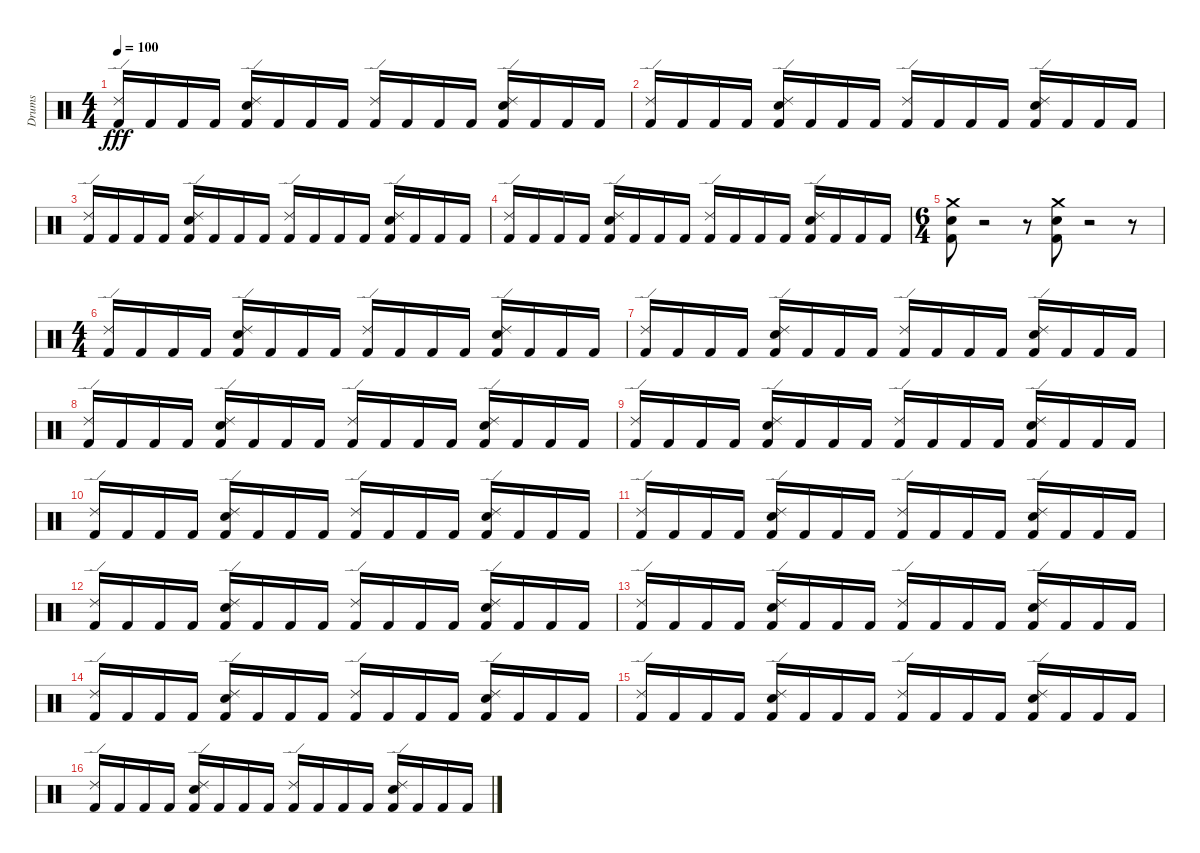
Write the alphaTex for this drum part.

\track ("Drums" "Drums") {instrument percussion}
\staff {score}
\articulation defaults
\ts (4 4)
\tempo 100
\clef neutral
\ks c
("Ride (edge) 2" "Kick (hit) 2").16{dy fff} "Kick (hit) 2".16 "Kick (hit) 2".16 "Kick (hit) 2".16 ("Electric Snare (hit)" "Ride (edge) 2" "Kick (hit) 2").16 "Kick (hit) 2".16 "Kick (hit) 2".16 "Kick (hit) 2".16 ("Ride (edge) 2" "Kick (hit) 2").16 "Kick (hit) 2".16 "Kick (hit) 2".16 "Kick (hit) 2".16 ("Ride (edge) 2" "Electric Snare (hit)" "Kick (hit) 2").16 "Kick (hit) 2".16 "Kick (hit) 2".16 "Kick (hit) 2".16 |
("Ride (edge) 2" "Kick (hit) 2").16 "Kick (hit) 2".16 "Kick (hit) 2".16 "Kick (hit) 2".16 ("Electric Snare (hit)" "Ride (edge) 2" "Kick (hit) 2").16 "Kick (hit) 2".16 "Kick (hit) 2".16 "Kick (hit) 2".16 ("Ride (edge) 2" "Kick (hit) 2").16 "Kick (hit) 2".16 "Kick (hit) 2".16 "Kick (hit) 2".16 ("Ride (edge) 2" "Electric Snare (hit)" "Kick (hit) 2").16 "Kick (hit) 2".16 "Kick (hit) 2".16 "Kick (hit) 2".16 |
("Ride (edge) 2" "Kick (hit) 2").16 "Kick (hit) 2".16 "Kick (hit) 2".16 "Kick (hit) 2".16 ("Electric Snare (hit)" "Ride (edge) 2" "Kick (hit) 2").16 "Kick (hit) 2".16 "Kick (hit) 2".16 "Kick (hit) 2".16 ("Ride (edge) 2" "Kick (hit) 2").16 "Kick (hit) 2".16 "Kick (hit) 2".16 "Kick (hit) 2".16 ("Ride (edge) 2" "Electric Snare (hit)" "Kick (hit) 2").16 "Kick (hit) 2".16 "Kick (hit) 2".16 "Kick (hit) 2".16 |
("Ride (edge) 2" "Kick (hit) 2").16 "Kick (hit) 2".16 "Kick (hit) 2".16 "Kick (hit) 2".16 ("Electric Snare (hit)" "Ride (edge) 2" "Kick (hit) 2").16 "Kick (hit) 2".16 "Kick (hit) 2".16 "Kick (hit) 2".16 ("Ride (edge) 2" "Kick (hit) 2").16 "Kick (hit) 2".16 "Kick (hit) 2".16 "Kick (hit) 2".16 ("Ride (edge) 2" "Electric Snare (hit)" "Kick (hit) 2").16 "Kick (hit) 2".16 "Kick (hit) 2".16 "Kick (hit) 2".16 |
\ts (6 4)
("Crash medium (hit)" "Electric Snare (hit)" "Kick (hit) 2").8 r.2 r.8 ("Crash medium (hit)" "Electric Snare (hit)" "Kick (hit) 2").8 r.2 r.8 |
\ts (4 4)
("Ride (edge) 2" "Kick (hit) 2").16 "Kick (hit) 2".16 "Kick (hit) 2".16 "Kick (hit) 2".16 ("Electric Snare (hit)" "Ride (edge) 2" "Kick (hit) 2").16 "Kick (hit) 2".16 "Kick (hit) 2".16 "Kick (hit) 2".16 ("Ride (edge) 2" "Kick (hit) 2").16 "Kick (hit) 2".16 "Kick (hit) 2".16 "Kick (hit) 2".16 ("Ride (edge) 2" "Electric Snare (hit)" "Kick (hit) 2").16 "Kick (hit) 2".16 "Kick (hit) 2".16 "Kick (hit) 2".16 |
("Ride (edge) 2" "Kick (hit) 2").16 "Kick (hit) 2".16 "Kick (hit) 2".16 "Kick (hit) 2".16 ("Electric Snare (hit)" "Ride (edge) 2" "Kick (hit) 2").16 "Kick (hit) 2".16 "Kick (hit) 2".16 "Kick (hit) 2".16 ("Ride (edge) 2" "Kick (hit) 2").16 "Kick (hit) 2".16 "Kick (hit) 2".16 "Kick (hit) 2".16 ("Ride (edge) 2" "Electric Snare (hit)" "Kick (hit) 2").16 "Kick (hit) 2".16 "Kick (hit) 2".16 "Kick (hit) 2".16 |
("Ride (edge) 2" "Kick (hit) 2").16 "Kick (hit) 2".16 "Kick (hit) 2".16 "Kick (hit) 2".16 ("Electric Snare (hit)" "Ride (edge) 2" "Kick (hit) 2").16 "Kick (hit) 2".16 "Kick (hit) 2".16 "Kick (hit) 2".16 ("Ride (edge) 2" "Kick (hit) 2").16 "Kick (hit) 2".16 "Kick (hit) 2".16 "Kick (hit) 2".16 ("Ride (edge) 2" "Electric Snare (hit)" "Kick (hit) 2").16 "Kick (hit) 2".16 "Kick (hit) 2".16 "Kick (hit) 2".16 |
("Ride (edge) 2" "Kick (hit) 2").16 "Kick (hit) 2".16 "Kick (hit) 2".16 "Kick (hit) 2".16 ("Electric Snare (hit)" "Ride (edge) 2" "Kick (hit) 2").16 "Kick (hit) 2".16 "Kick (hit) 2".16 "Kick (hit) 2".16 ("Ride (edge) 2" "Kick (hit) 2").16 "Kick (hit) 2".16 "Kick (hit) 2".16 "Kick (hit) 2".16 ("Ride (edge) 2" "Electric Snare (hit)" "Kick (hit) 2").16 "Kick (hit) 2".16 "Kick (hit) 2".16 "Kick (hit) 2".16 |
("Ride (edge) 2" "Kick (hit) 2").16 "Kick (hit) 2".16 "Kick (hit) 2".16 "Kick (hit) 2".16 ("Electric Snare (hit)" "Ride (edge) 2" "Kick (hit) 2").16 "Kick (hit) 2".16 "Kick (hit) 2".16 "Kick (hit) 2".16 ("Ride (edge) 2" "Kick (hit) 2").16 "Kick (hit) 2".16 "Kick (hit) 2".16 "Kick (hit) 2".16 ("Ride (edge) 2" "Electric Snare (hit)" "Kick (hit) 2").16 "Kick (hit) 2".16 "Kick (hit) 2".16 "Kick (hit) 2".16 |
("Ride (edge) 2" "Kick (hit) 2").16 "Kick (hit) 2".16 "Kick (hit) 2".16 "Kick (hit) 2".16 ("Electric Snare (hit)" "Ride (edge) 2" "Kick (hit) 2").16 "Kick (hit) 2".16 "Kick (hit) 2".16 "Kick (hit) 2".16 ("Ride (edge) 2" "Kick (hit) 2").16 "Kick (hit) 2".16 "Kick (hit) 2".16 "Kick (hit) 2".16 ("Ride (edge) 2" "Electric Snare (hit)" "Kick (hit) 2").16 "Kick (hit) 2".16 "Kick (hit) 2".16 "Kick (hit) 2".16 |
("Ride (edge) 2" "Kick (hit) 2").16 "Kick (hit) 2".16 "Kick (hit) 2".16 "Kick (hit) 2".16 ("Electric Snare (hit)" "Ride (edge) 2" "Kick (hit) 2").16 "Kick (hit) 2".16 "Kick (hit) 2".16 "Kick (hit) 2".16 ("Ride (edge) 2" "Kick (hit) 2").16 "Kick (hit) 2".16 "Kick (hit) 2".16 "Kick (hit) 2".16 ("Ride (edge) 2" "Electric Snare (hit)" "Kick (hit) 2").16 "Kick (hit) 2".16 "Kick (hit) 2".16 "Kick (hit) 2".16 |
("Ride (edge) 2" "Kick (hit) 2").16 "Kick (hit) 2".16 "Kick (hit) 2".16 "Kick (hit) 2".16 ("Electric Snare (hit)" "Ride (edge) 2" "Kick (hit) 2").16 "Kick (hit) 2".16 "Kick (hit) 2".16 "Kick (hit) 2".16 ("Ride (edge) 2" "Kick (hit) 2").16 "Kick (hit) 2".16 "Kick (hit) 2".16 "Kick (hit) 2".16 ("Ride (edge) 2" "Electric Snare (hit)" "Kick (hit) 2").16 "Kick (hit) 2".16 "Kick (hit) 2".16 "Kick (hit) 2".16 |
("Ride (edge) 2" "Kick (hit) 2").16 "Kick (hit) 2".16 "Kick (hit) 2".16 "Kick (hit) 2".16 ("Electric Snare (hit)" "Ride (edge) 2" "Kick (hit) 2").16 "Kick (hit) 2".16 "Kick (hit) 2".16 "Kick (hit) 2".16 ("Ride (edge) 2" "Kick (hit) 2").16 "Kick (hit) 2".16 "Kick (hit) 2".16 "Kick (hit) 2".16 ("Ride (edge) 2" "Electric Snare (hit)" "Kick (hit) 2").16 "Kick (hit) 2".16 "Kick (hit) 2".16 "Kick (hit) 2".16 |
("Ride (edge) 2" "Kick (hit) 2").16 "Kick (hit) 2".16 "Kick (hit) 2".16 "Kick (hit) 2".16 ("Electric Snare (hit)" "Ride (edge) 2" "Kick (hit) 2").16 "Kick (hit) 2".16 "Kick (hit) 2".16 "Kick (hit) 2".16 ("Ride (edge) 2" "Kick (hit) 2").16 "Kick (hit) 2".16 "Kick (hit) 2".16 "Kick (hit) 2".16 ("Ride (edge) 2" "Electric Snare (hit)" "Kick (hit) 2").16 "Kick (hit) 2".16 "Kick (hit) 2".16 "Kick (hit) 2".16 |
("Ride (edge) 2" "Kick (hit) 2").16 "Kick (hit) 2".16 "Kick (hit) 2".16 "Kick (hit) 2".16 ("Electric Snare (hit)" "Ride (edge) 2" "Kick (hit) 2").16 "Kick (hit) 2".16 "Kick (hit) 2".16 "Kick (hit) 2".16 ("Ride (edge) 2" "Kick (hit) 2").16 "Kick (hit) 2".16 "Kick (hit) 2".16 "Kick (hit) 2".16 ("Ride (edge) 2" "Electric Snare (hit)" "Kick (hit) 2").16 "Kick (hit) 2".16 "Kick (hit) 2".16 "Kick (hit) 2".16
